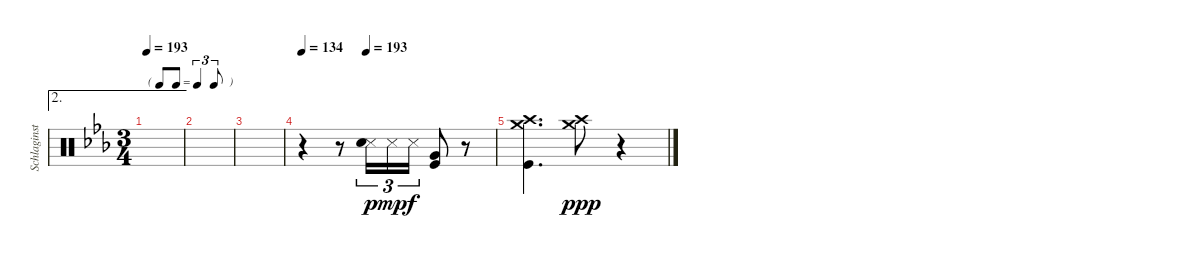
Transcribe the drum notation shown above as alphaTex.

\track ("Schlaginstrumente - Auswahl" "Schlaginst") {instrument percussion}
\staff {score}
\articulation defaults
\ae 2
\ts (3 4)
\tf triplet8th
\tempo 193
\clef neutral
\ks cminor
|
|
|
\tempo 134
\tempo (193 0.3333333333333333)
r.4 r.8 ("Snare (side stick) 3" "Snare (hit) 2").16{tu (3 2) dy p} "Snare (side stick) 3".16{tu (3 2) dy mp} "Snare (side stick) 3".16{tu (3 2) dy f} ("Very Low Tom (hit)" "Kick (hit)").8 r.8 |
("Crash medium (hit)" "Crash high (hit)" "Kick (hit)").4{d} ("Crash medium (hit)" "Crash high (hit)").8{dy ppp} r.4
